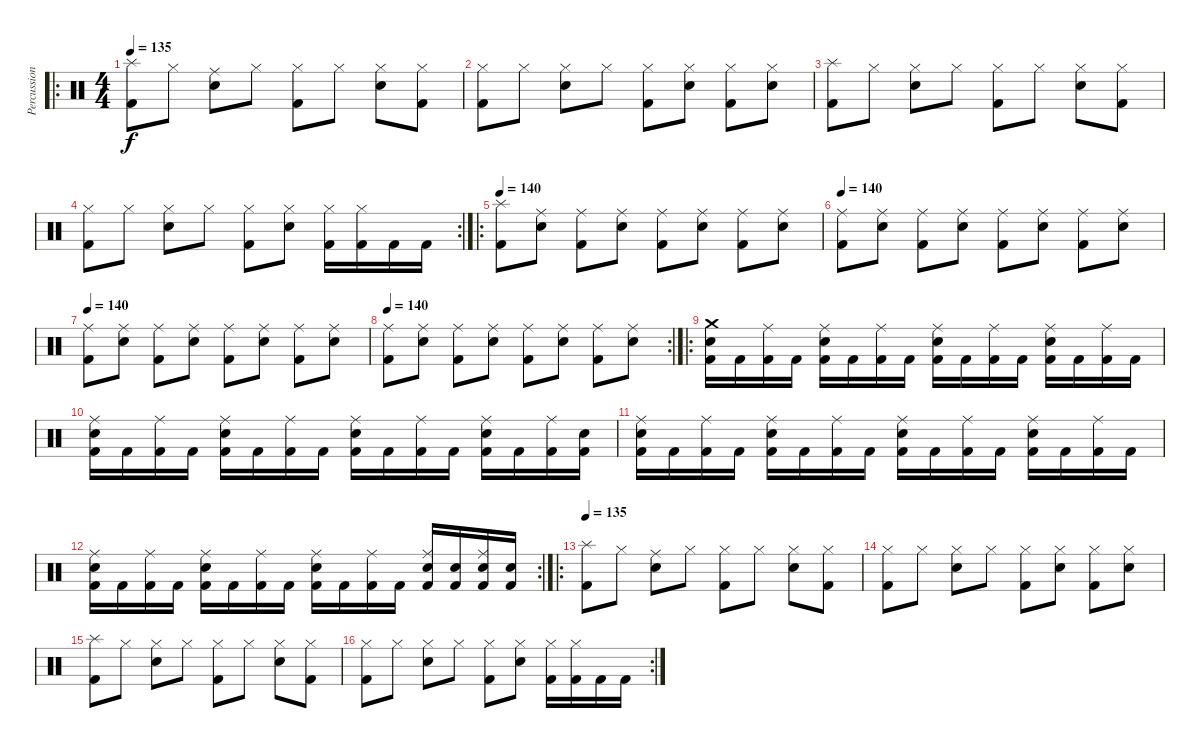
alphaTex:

\track ("Percussions" "Percussion") {instrument percussion}
\staff {score}
\articulation defaults
\ro
\ts (4 4)
\tempo 135
\clef neutral
\ks c
("Splash (hit)" "Kick (hit) 2").8{dy f} "Hi-Hat (closed)".8 ("Ride (middle)" "Snare (hit) 2").8 "Hi-Hat (closed)".8 ("Hi-Hat (closed)" "Kick (hit) 2").8 "Hi-Hat (closed)".8 ("Hi-Hat (closed)" "Snare (hit) 2").8 ("Hi-Hat (closed)" "Kick (hit) 2").8 |
("Hi-Hat (closed)" "Kick (hit) 2").8 "Hi-Hat (closed)".8 ("Hi-Hat (closed)" "Snare (hit) 2").8 "Hi-Hat (closed)".8 ("Hi-Hat (closed)" "Kick (hit) 2").8 ("Hi-Hat (closed)" "Snare (hit) 2").8 ("Hi-Hat (closed)" "Kick (hit) 2").8 ("Hi-Hat (closed)" "Snare (hit) 2").8 |
("Splash (hit)" "Kick (hit) 2").8 "Hi-Hat (closed)".8 ("Hi-Hat (closed)" "Snare (hit) 2").8 "Hi-Hat (closed)".8 ("Hi-Hat (closed)" "Kick (hit) 2").8 "Hi-Hat (closed)".8 ("Hi-Hat (closed)" "Snare (hit) 2").8 ("Hi-Hat (closed)" "Kick (hit) 2").8 |
\rc 2
("Hi-Hat (closed)" "Kick (hit) 2").8 "Hi-Hat (closed)".8 ("Hi-Hat (closed)" "Snare (hit) 2").8 "Hi-Hat (closed)".8 ("Hi-Hat (closed)" "Kick (hit) 2").8 ("Hi-Hat (closed)" "Snare (hit) 2").8 ("Hi-Hat (closed)" "Kick (hit) 2").16 ("Hi-Hat (closed)" "Kick (hit) 2").16 "Kick (hit) 2".16 "Kick (hit) 2".16 |
\ro
\tempo 140
("Splash (hit)" "Kick (hit) 2").8 ("Ride (middle)" "Snare (hit) 2").8 ("Ride (middle)" "Kick (hit) 2").8 ("Ride (middle)" "Snare (hit) 2").8 ("Ride (middle)" "Kick (hit) 2").8 ("Ride (middle)" "Snare (hit) 2").8 ("Ride (middle)" "Kick (hit) 2").8 ("Ride (middle)" "Snare (hit) 2").8 |
\tempo 140
("Ride (middle)" "Kick (hit) 2").8 ("Ride (middle)" "Snare (hit) 2").8 ("Ride (middle)" "Kick (hit) 2").8 ("Ride (middle)" "Snare (hit) 2").8 ("Ride (middle)" "Kick (hit) 2").8 ("Ride (middle)" "Snare (hit) 2").8 ("Ride (middle)" "Kick (hit) 2").8 ("Ride (middle)" "Snare (hit) 2").8 |
\tempo 140
("Ride (middle)" "Kick (hit) 2").8 ("Ride (middle)" "Snare (hit) 2").8 ("Ride (middle)" "Kick (hit) 2").8 ("Ride (middle)" "Snare (hit) 2").8 ("Ride (middle)" "Kick (hit) 2").8 ("Ride (middle)" "Snare (hit) 2").8 ("Ride (middle)" "Kick (hit) 2").8 ("Ride (middle)" "Snare (hit) 2").8 |
\rc 2
\tempo 140
("Ride (middle)" "Kick (hit) 2").8 ("Ride (middle)" "Snare (hit) 2").8 ("Ride (middle)" "Kick (hit) 2").8 ("Ride (middle)" "Snare (hit) 2").8 ("Ride (middle)" "Kick (hit) 2").8 ("Ride (middle)" "Snare (hit) 2").8 ("Ride (middle)" "Kick (hit) 2").8 ("Ride (middle)" "Snare (hit) 2").8 |
\ro
("Crash medium (hit)" "Snare (hit) 2" "Kick (hit) 2").16 "Kick (hit) 2".16 ("Ride (middle)" "Kick (hit) 2").16 "Kick (hit) 2".16 ("Ride (middle)" "Snare (hit) 2" "Kick (hit) 2").16 "Kick (hit) 2".16 ("Ride (middle)" "Kick (hit) 2").16 "Kick (hit) 2".16 ("Ride (middle)" "Snare (hit) 2" "Kick (hit) 2").16 "Kick (hit) 2".16 ("Ride (middle)" "Kick (hit) 2").16 "Kick (hit) 2".16 ("Ride (middle)" "Snare (hit) 2" "Kick (hit) 2").16 "Kick (hit) 2".16 ("Ride (middle)" "Kick (hit) 2").16 "Kick (hit) 2".16 |
("Ride (middle)" "Snare (hit) 2" "Kick (hit) 2").16 "Kick (hit) 2".16 ("Ride (middle)" "Kick (hit) 2").16 "Kick (hit) 2".16 ("Ride (middle)" "Snare (hit) 2" "Kick (hit) 2").16 "Kick (hit) 2".16 ("Ride (middle)" "Kick (hit) 2").16 "Kick (hit) 2".16 ("Ride (middle)" "Snare (hit) 2" "Kick (hit) 2").16 "Kick (hit) 2".16 ("Ride (middle)" "Kick (hit) 2").16 "Kick (hit) 2".16 ("Ride (middle)" "Snare (hit) 2" "Kick (hit) 2").16 "Kick (hit) 2".16 ("Ride (middle)" "Kick (hit) 2").16 ("Snare (hit) 2" "Kick (hit) 2").16 |
("Ride (middle)" "Snare (hit) 2" "Kick (hit) 2").16 "Kick (hit) 2".16 ("Ride (middle)" "Kick (hit) 2").16 "Kick (hit) 2".16 ("Ride (middle)" "Snare (hit) 2" "Kick (hit) 2").16 "Kick (hit) 2".16 ("Ride (middle)" "Kick (hit) 2").16 "Kick (hit) 2".16 ("Ride (middle)" "Snare (hit) 2" "Kick (hit) 2").16 "Kick (hit) 2".16 ("Ride (middle)" "Kick (hit) 2").16 "Kick (hit) 2".16 ("Ride (middle)" "Snare (hit) 2" "Kick (hit) 2").16 "Kick (hit) 2".16 ("Ride (middle)" "Kick (hit) 2").16 "Kick (hit) 2".16 |
\rc 2
("Ride (middle)" "Snare (hit) 2" "Kick (hit) 2").16 "Kick (hit) 2".16 ("Ride (middle)" "Kick (hit) 2").16 "Kick (hit) 2".16 ("Ride (middle)" "Snare (hit) 2" "Kick (hit) 2").16 "Kick (hit) 2".16 ("Ride (middle)" "Kick (hit) 2").16 "Kick (hit) 2".16 ("Ride (middle)" "Snare (hit) 2" "Kick (hit) 2").16 "Kick (hit) 2".16 ("Ride (middle)" "Kick (hit) 2").16 "Kick (hit) 2".16 ("Ride (middle)" "Snare (hit) 2" "Kick (hit) 2").16 ("Snare (hit) 2" "Kick (hit) 2").16 ("Ride (middle)" "Snare (hit) 2" "Kick (hit) 2").16 ("Snare (hit) 2" "Kick (hit) 2").16 |
\ro
\tempo 135
("Splash (hit)" "Kick (hit) 2").8 "Hi-Hat (closed)".8 ("Ride (middle)" "Snare (hit) 2").8 "Hi-Hat (closed)".8 ("Hi-Hat (closed)" "Kick (hit) 2").8 "Hi-Hat (closed)".8 ("Hi-Hat (closed)" "Snare (hit) 2").8 ("Hi-Hat (closed)" "Kick (hit) 2").8 |
("Hi-Hat (closed)" "Kick (hit) 2").8 "Hi-Hat (closed)".8 ("Hi-Hat (closed)" "Snare (hit) 2").8 "Hi-Hat (closed)".8 ("Hi-Hat (closed)" "Kick (hit) 2").8 ("Hi-Hat (closed)" "Snare (hit) 2").8 ("Hi-Hat (closed)" "Kick (hit) 2").8 ("Hi-Hat (closed)" "Snare (hit) 2").8 |
("Splash (hit)" "Kick (hit) 2").8 "Hi-Hat (closed)".8 ("Hi-Hat (closed)" "Snare (hit) 2").8 "Hi-Hat (closed)".8 ("Hi-Hat (closed)" "Kick (hit) 2").8 "Hi-Hat (closed)".8 ("Hi-Hat (closed)" "Snare (hit) 2").8 ("Hi-Hat (closed)" "Kick (hit) 2").8 |
\rc 2
("Hi-Hat (closed)" "Kick (hit) 2").8 "Hi-Hat (closed)".8 ("Hi-Hat (closed)" "Snare (hit) 2").8 "Hi-Hat (closed)".8 ("Hi-Hat (closed)" "Kick (hit) 2").8 ("Hi-Hat (closed)" "Snare (hit) 2").8 ("Hi-Hat (closed)" "Kick (hit) 2").16 ("Hi-Hat (closed)" "Kick (hit) 2").16 "Kick (hit) 2".16 "Kick (hit) 2".16
